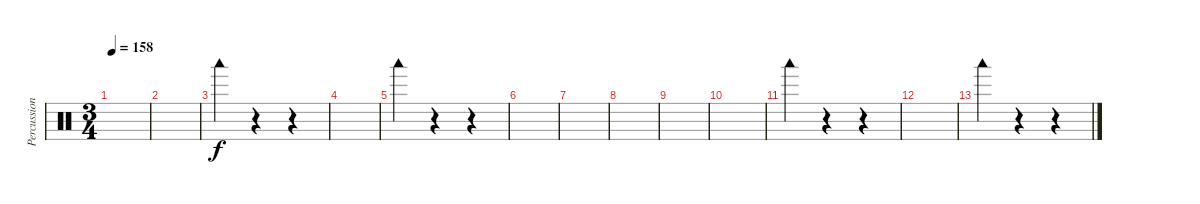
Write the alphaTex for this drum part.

\track ("Percussion" "Percussion") {instrument percussion}
\staff {score}
\articulation defaults
\ts (3 4)
\tempo 158
\clef neutral
\ks c
|
|
"Woodblock low (hit)".4 r.4 r.4 |
|
"Woodblock low (hit)".4 r.4 r.4 |
|
|
|
|
|
"Woodblock low (hit)".4 r.4 r.4 |
|
"Woodblock low (hit)".4 r.4 r.4
